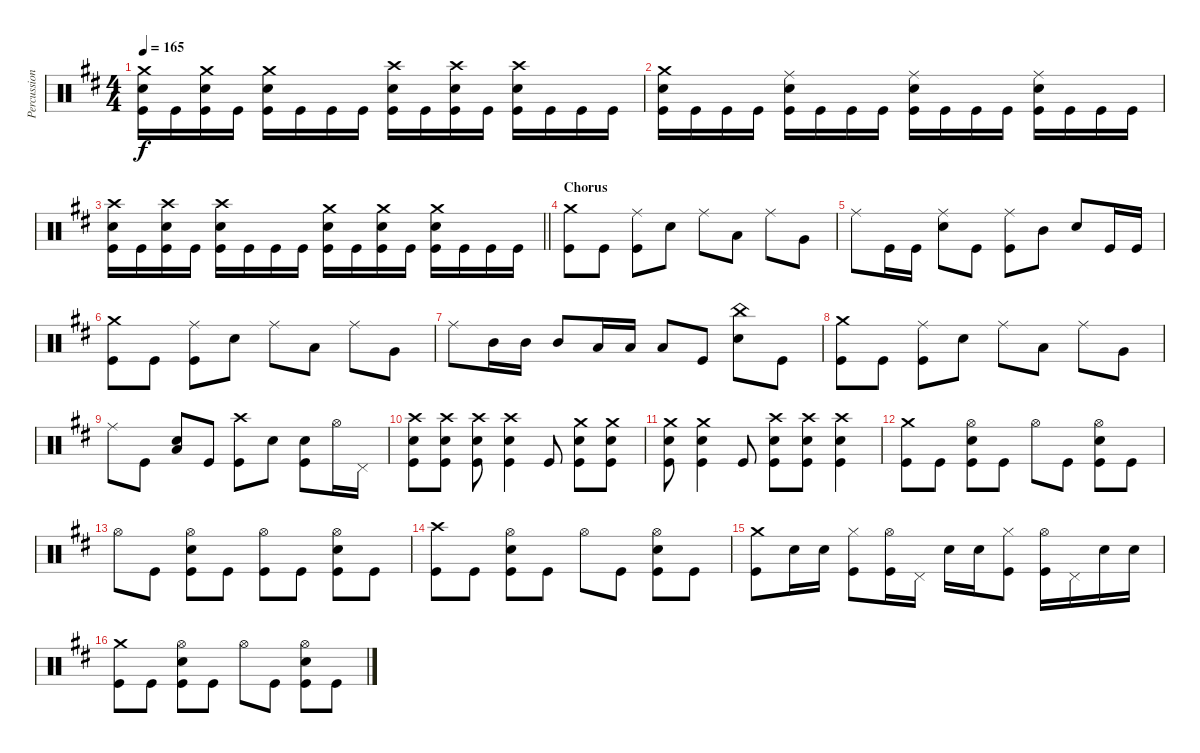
\track ("Percussion" "Percussion") {instrument percussion}
\staff {score}
\articulation defaults
\ts (4 4)
\tempo 165
\clef neutral
\ks d
("Crash medium (hit)" "Electric Snare (hit)" "Kick (hit)").16{dy f} "Kick (hit)".16 ("Crash medium (hit)" "Electric Snare (hit)" "Kick (hit)").16 "Kick (hit)".16 ("Crash medium (hit)" "Electric Snare (hit)" "Kick (hit)").16 "Kick (hit)".16 "Kick (hit)".16 "Kick (hit)".16 ("Crash high (hit)" "Electric Snare (hit)" "Kick (hit)").16 "Kick (hit)".16 ("Crash high (hit)" "Electric Snare (hit)" "Kick (hit)").16 "Kick (hit)".16 ("Crash high (hit)" "Electric Snare (hit)" "Kick (hit)").16 "Kick (hit)".16 "Kick (hit)".16 "Kick (hit)".16 |
("Crash medium (hit)" "Electric Snare (hit)" "Kick (hit)").16 "Kick (hit)".16 "Kick (hit)".16 "Kick (hit)".16 ("Ride (middle)" "Electric Snare (hit)" "Kick (hit)").16 "Kick (hit)".16 "Kick (hit)".16 "Kick (hit)".16 ("Ride (middle)" "Electric Snare (hit)" "Kick (hit)").16 "Kick (hit)".16 "Kick (hit)".16 "Kick (hit)".16 ("Ride (middle)" "Electric Snare (hit)" "Kick (hit)").16 "Kick (hit)".16 "Kick (hit)".16 "Kick (hit)".16 |
\barLineRight lightlight
("Crash high (hit)" "Electric Snare (hit)" "Kick (hit)").16 "Kick (hit)".16 ("Crash high (hit)" "Electric Snare (hit)" "Kick (hit)").16 "Kick (hit)".16 ("Crash high (hit)" "Electric Snare (hit)" "Kick (hit)").16 "Kick (hit)".16 "Kick (hit)".16 "Kick (hit)".16 ("Crash medium (hit)" "Electric Snare (hit)" "Kick (hit)").16 "Kick (hit)".16 ("Crash medium (hit)" "Electric Snare (hit)" "Kick (hit)").16 "Kick (hit)".16 ("Crash medium (hit)" "Electric Snare (hit)" "Kick (hit)").16 "Kick (hit)".16 "Kick (hit)".16 "Kick (hit)".16 |
\section ("" "Chorus")
("Crash medium (hit)" "Kick (hit)").8 "Kick (hit)".8 ("Ride (middle)" "Kick (hit)").8 "Electric Snare (hit)".8 "Ride (middle)".8 "Low Tom (hit)".8 "Ride (middle)".8 "Very Low Tom (hit)".8 |
"Ride (middle)".8 "Kick (hit)".16 "Kick (hit)".16 ("Ride (middle)" "Electric Snare (hit)").8 "Kick (hit)".8 ("Ride (middle)" "Kick (hit)").8 "Mid Tom (hit)".8 "Electric Snare (hit)".8 "Kick (hit)".16 "Kick (hit)".16 |
("Crash medium (hit)" "Kick (hit)").8 "Kick (hit)".8 ("Ride (middle)" "Kick (hit)").8 "Electric Snare (hit)".8 "Ride (middle)".8 "Low Tom (hit)".8 "Ride (middle)".8 "Very Low Tom (hit)".8 |
"Ride (middle)".8 "Mid Tom (hit)".16 "Mid Tom (hit)".16 "Mid Tom (hit)".8 "Low Tom (hit)".16 "Low Tom (hit)".16 "Low Tom (hit)".8 "Kick (hit)".8 ("China (hit)" "Electric Snare (hit)").8 "Kick (hit)".8 |
("Crash medium (hit)" "Kick (hit)").8 "Kick (hit)".8 ("Ride (middle)" "Kick (hit)").8 "Electric Snare (hit)".8 "Ride (middle)".8 "Low Tom (hit)".8 "Ride (middle)".8 "Very Low Tom (hit)".8 |
"Ride (middle)".8 "Kick (hit)".8 ("Low Tom (hit)" "Electric Snare (hit)").8 "Kick (hit)".8 ("Crash high (hit)" "Kick (hit)").8 "Electric Snare (hit)".8 ("Electric Snare (hit)" "Kick (hit)").8 "Hi-Hat (open)".16 "Pedal Hi-Hat (hit)".16 |
("Crash high (hit)" "Electric Snare (hit)" "Kick (hit)").8 ("Crash high (hit)" "Electric Snare (hit)" "Kick (hit)").8 ("Crash high (hit)" "Electric Snare (hit)" "Kick (hit)").8 ("Crash high (hit)" "Electric Snare (hit)" "Kick (hit)").4 "Kick (hit)".8 ("Crash medium (hit)" "Electric Snare (hit)" "Kick (hit)").8 ("Crash medium (hit)" "Electric Snare (hit)" "Kick (hit)").8 |
("Crash medium (hit)" "Electric Snare (hit)" "Kick (hit)").8 ("Crash medium (hit)" "Electric Snare (hit)" "Kick (hit)").4 "Kick (hit)".8 ("Crash high (hit)" "Electric Snare (hit)" "Kick (hit)").8 ("Crash high (hit)" "Electric Snare (hit)" "Kick (hit)").8 ("Crash high (hit)" "Electric Snare (hit)" "Kick (hit)").4 |
("Crash medium (hit)" "Kick (hit)").8 "Kick (hit)".8 ("Hi-Hat (open)" "Electric Snare (hit)" "Kick (hit)").8 "Kick (hit)".8 "Hi-Hat (open)".8 "Kick (hit)".8 ("Hi-Hat (open)" "Electric Snare (hit)" "Kick (hit)").8 "Kick (hit)".8 |
"Hi-Hat (open)".8 "Kick (hit)".8 ("Hi-Hat (open)" "Electric Snare (hit)" "Kick (hit)").8 "Kick (hit)".8 ("Hi-Hat (open)" "Kick (hit)").8 "Kick (hit)".8 ("Hi-Hat (open)" "Electric Snare (hit)" "Kick (hit)").8 "Kick (hit)".8 |
("Crash high (hit)" "Kick (hit)").8 "Kick (hit)".8 ("Hi-Hat (open)" "Electric Snare (hit)" "Kick (hit)").8 "Kick (hit)".8 "Hi-Hat (open)".8 "Kick (hit)".8 ("Hi-Hat (open)" "Electric Snare (hit)" "Kick (hit)").8 "Kick (hit)".8 |
("Crash medium (hit)" "Kick (hit)").8 "Electric Snare (hit)".16 "Electric Snare (hit)".16 ("Hi-Hat (closed)" "Kick (hit)").8 ("Hi-Hat (open)" "Kick (hit)").16 "Pedal Hi-Hat (hit)".16 "Electric Snare (hit)".16 "Electric Snare (hit)".16 ("Hi-Hat (closed)" "Kick (hit)").8 ("Hi-Hat (open)" "Kick (hit)").16 "Pedal Hi-Hat (hit)".16 "Electric Snare (hit)".16 "Electric Snare (hit)".16 |
("Crash medium (hit)" "Kick (hit)").8 "Kick (hit)".8 ("Hi-Hat (open)" "Electric Snare (hit)" "Kick (hit)").8 "Kick (hit)".8 "Hi-Hat (open)".8 "Kick (hit)".8 ("Hi-Hat (open)" "Electric Snare (hit)" "Kick (hit)").8 "Kick (hit)".8
